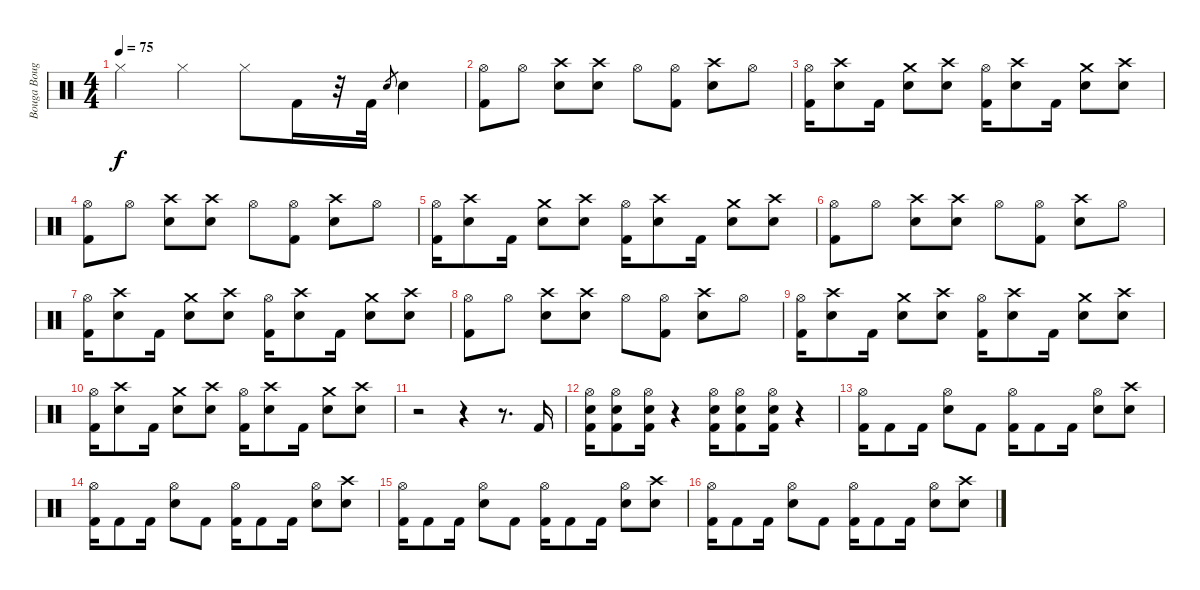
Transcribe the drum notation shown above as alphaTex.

\track ("Bouga Bouga" "Bouga Boug") {instrument percussion}
\staff {score}
\articulation defaults
\ts (4 4)
\tempo 75
\clef neutral
\ks c "Hi-Hat (closed)".4{dy f} "Hi-Hat (closed)".4 "Hi-Hat (closed)".8 "Kick (hit) 2".16
r.32 "Kick (hit) 2".32 "Snare (hit) 2".8{gr} "Snare (hit) 2".4 |
("Hi-Hat (open)" "Kick (hit) 2").8{volume 14} "Hi-Hat (open)".8 ("Crash high (hit)" "Snare (hit) 2").8 ("Crash high (hit)" "Snare (hit) 2").8 "Hi-Hat (open)".8 ("Hi-Hat (open)" "Kick (hit) 2").8 ("Crash high (hit)" "Snare (hit) 2").8 "Hi-Hat (open)".8 |
("Hi-Hat (open)" "Kick (hit) 2").16 ("Crash high (hit)" "Snare (hit) 2").8 "Kick (hit) 2".16 ("Crash medium (hit)" "Snare (hit) 2").8 ("Crash high (hit)" "Snare (hit) 2").8 ("Hi-Hat (open)" "Kick (hit) 2").16 ("Crash high (hit)" "Snare (hit) 2").8 "Kick (hit) 2".16 ("Crash medium (hit)" "Snare (hit) 2").8 ("Crash high (hit)" "Snare (hit) 2").8 |
("Hi-Hat (open)" "Kick (hit) 2").8{volume 14} "Hi-Hat (open)".8 ("Crash high (hit)" "Snare (hit) 2").8 ("Crash high (hit)" "Snare (hit) 2").8 "Hi-Hat (open)".8 ("Hi-Hat (open)" "Kick (hit) 2").8 ("Crash high (hit)" "Snare (hit) 2").8 "Hi-Hat (open)".8 |
("Hi-Hat (open)" "Kick (hit) 2").16 ("Crash high (hit)" "Snare (hit) 2").8 "Kick (hit) 2".16 ("Crash medium (hit)" "Snare (hit) 2").8 ("Crash high (hit)" "Snare (hit) 2").8 ("Hi-Hat (open)" "Kick (hit) 2").16 ("Crash high (hit)" "Snare (hit) 2").8 "Kick (hit) 2".16 ("Crash medium (hit)" "Snare (hit) 2").8 ("Crash high (hit)" "Snare (hit) 2").8 |
("Hi-Hat (open)" "Kick (hit) 2").8{volume 14} "Hi-Hat (open)".8 ("Crash high (hit)" "Snare (hit) 2").8 ("Crash high (hit)" "Snare (hit) 2").8 "Hi-Hat (open)".8 ("Hi-Hat (open)" "Kick (hit) 2").8 ("Crash high (hit)" "Snare (hit) 2").8 "Hi-Hat (open)".8 |
("Hi-Hat (open)" "Kick (hit) 2").16 ("Crash high (hit)" "Snare (hit) 2").8 "Kick (hit) 2".16 ("Crash medium (hit)" "Snare (hit) 2").8 ("Crash high (hit)" "Snare (hit) 2").8 ("Hi-Hat (open)" "Kick (hit) 2").16 ("Crash high (hit)" "Snare (hit) 2").8 "Kick (hit) 2".16 ("Crash medium (hit)" "Snare (hit) 2").8 ("Crash high (hit)" "Snare (hit) 2").8 |
("Hi-Hat (open)" "Kick (hit) 2").8{volume 14} "Hi-Hat (open)".8 ("Crash high (hit)" "Snare (hit) 2").8 ("Crash high (hit)" "Snare (hit) 2").8 "Hi-Hat (open)".8 ("Hi-Hat (open)" "Kick (hit) 2").8 ("Crash high (hit)" "Snare (hit) 2").8 "Hi-Hat (open)".8 |
("Hi-Hat (open)" "Kick (hit) 2").16 ("Crash high (hit)" "Snare (hit) 2").8 "Kick (hit) 2".16 ("Crash medium (hit)" "Snare (hit) 2").8 ("Crash high (hit)" "Snare (hit) 2").8 ("Hi-Hat (open)" "Kick (hit) 2").16 ("Crash high (hit)" "Snare (hit) 2").8 "Kick (hit) 2".16 ("Crash medium (hit)" "Snare (hit) 2").8 ("Crash high (hit)" "Snare (hit) 2").8 |
("Hi-Hat (open)" "Kick (hit) 2").16 ("Crash high (hit)" "Snare (hit) 2").8 "Kick (hit) 2".16 ("Crash medium (hit)" "Snare (hit) 2").8 ("Crash high (hit)" "Snare (hit) 2").8 ("Hi-Hat (open)" "Kick (hit) 2").16 ("Crash high (hit)" "Snare (hit) 2").8 "Kick (hit) 2".16 ("Crash medium (hit)" "Snare (hit) 2").8 ("Crash high (hit)" "Snare (hit) 2").8 |
r.2 r.4 r.8{d} "Kick (hit) 2".16 |
("Hi-Hat (open)" "Snare (hit) 2" "Kick (hit) 2").16{volume 14} ("Hi-Hat (open)" "Snare (hit) 2" "Kick (hit) 2").8 ("Hi-Hat (open)" "Snare (hit) 2" "Kick (hit) 2").16 r.4 ("Hi-Hat (open)" "Snare (hit) 2" "Kick (hit) 2").16 ("Hi-Hat (open)" "Snare (hit) 2" "Kick (hit) 2").8 ("Hi-Hat (open)" "Snare (hit) 2" "Kick (hit) 2").16 r.4 |
("Hi-Hat (open)" "Kick (hit) 2").16 "Kick (hit) 2".8 "Kick (hit) 2".16 ("Hi-Hat (open)" "Snare (hit) 2").8 "Kick (hit) 2".8 ("Hi-Hat (open)" "Kick (hit) 2").16 "Kick (hit) 2".8 "Kick (hit) 2".16 ("Hi-Hat (open)" "Snare (hit) 2").8 ("Crash high (hit)" "Snare (hit) 2").8 |
("Hi-Hat (open)" "Kick (hit) 2").16 "Kick (hit) 2".8 "Kick (hit) 2".16 ("Hi-Hat (open)" "Snare (hit) 2").8 "Kick (hit) 2".8 ("Hi-Hat (open)" "Kick (hit) 2").16 "Kick (hit) 2".8 "Kick (hit) 2".16 ("Hi-Hat (open)" "Snare (hit) 2").8 ("Crash high (hit)" "Snare (hit) 2").8 |
("Hi-Hat (open)" "Kick (hit) 2").16 "Kick (hit) 2".8 "Kick (hit) 2".16 ("Hi-Hat (open)" "Snare (hit) 2").8 "Kick (hit) 2".8 ("Hi-Hat (open)" "Kick (hit) 2").16 "Kick (hit) 2".8 "Kick (hit) 2".16 ("Hi-Hat (open)" "Snare (hit) 2").8 ("Crash high (hit)" "Snare (hit) 2").8 |
("Hi-Hat (open)" "Kick (hit) 2").16 "Kick (hit) 2".8 "Kick (hit) 2".16 ("Hi-Hat (open)" "Snare (hit) 2").8 "Kick (hit) 2".8 ("Hi-Hat (open)" "Kick (hit) 2").16 "Kick (hit) 2".8 "Kick (hit) 2".16 ("Hi-Hat (open)" "Snare (hit) 2").8 ("Crash high (hit)" "Snare (hit) 2").8
